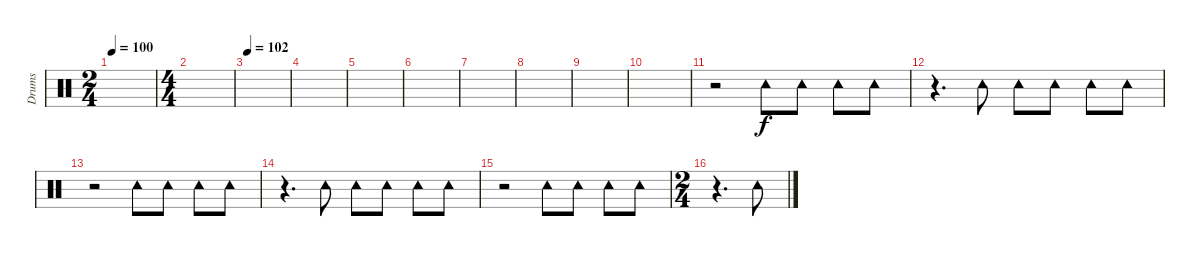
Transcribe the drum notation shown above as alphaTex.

\track ("Drums" "Drums") {instrument percussion}
\staff {score}
\articulation defaults
\ts (2 4)
\tempo 100
\clef neutral
\ks c
|
\ts (4 4)
|
\tempo 102
|
|
|
|
|
|
|
|
r.2 "Tambourine (hit)".8 "Tambourine (hit)".8 "Tambourine (hit)".8 "Tambourine (hit)".8 |
r.4{d} "Tambourine (hit)".8 "Tambourine (hit)".8 "Tambourine (hit)".8 "Tambourine (hit)".8 "Tambourine (hit)".8 |
r.2 "Tambourine (hit)".8 "Tambourine (hit)".8 "Tambourine (hit)".8 "Tambourine (hit)".8 |
r.4{d} "Tambourine (hit)".8 "Tambourine (hit)".8 "Tambourine (hit)".8 "Tambourine (hit)".8 "Tambourine (hit)".8 |
r.2 "Tambourine (hit)".8 "Tambourine (hit)".8 "Tambourine (hit)".8 "Tambourine (hit)".8 |
\ts (2 4)
r.4{d} "Tambourine (hit)".8
